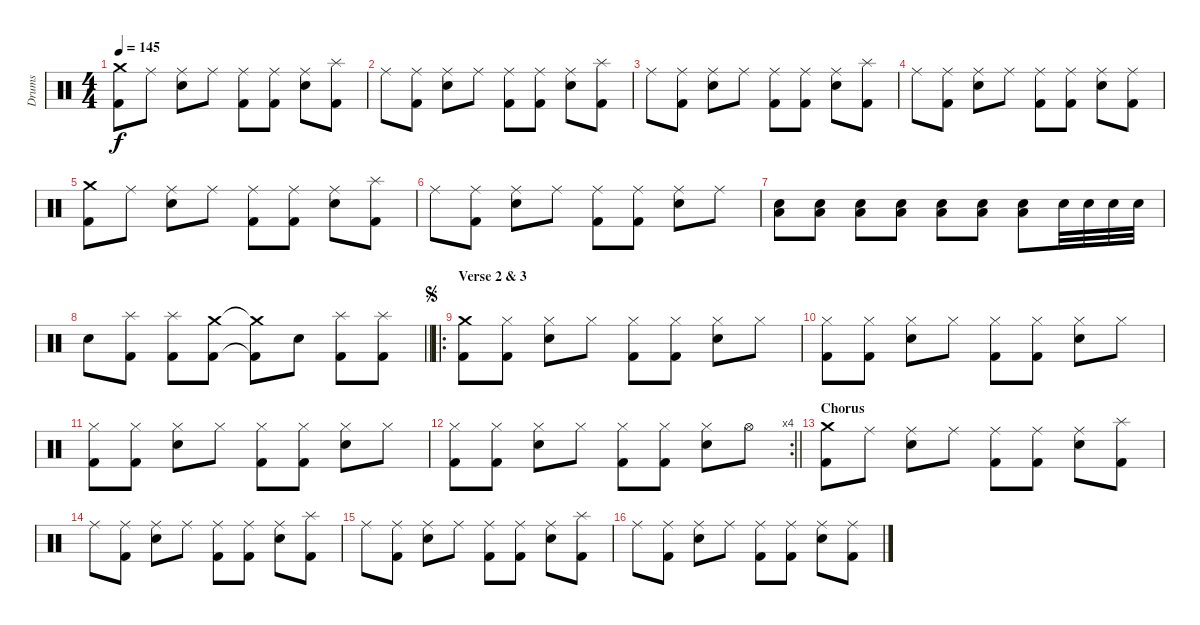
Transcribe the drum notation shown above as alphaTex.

\track ("Drums" "Drums") {instrument percussion}
\staff {score}
\articulation defaults
\ts (4 4)
\tempo 145
\clef neutral
\ks c
("Crash medium (hit)" "Kick (hit) 2").8{dy f} "Ride (middle)".8 ("Ride (middle)" "Snare (hit) 2").8 "Ride (middle)".8 ("Ride (middle)" "Kick (hit) 2").8 ("Ride (middle)" "Kick (hit) 2").8 ("Ride (middle)" "Snare (hit) 2").8 ("Splash (hit)" "Kick (hit) 2").8 |
"Ride (middle)".8 ("Ride (middle)" "Kick (hit) 2").8 ("Ride (middle)" "Snare (hit) 2").8 "Ride (middle)".8 ("Ride (middle)" "Kick (hit) 2").8 ("Ride (middle)" "Kick (hit) 2").8 ("Ride (middle)" "Snare (hit) 2").8 ("Splash (hit)" "Kick (hit) 2").8 |
"Ride (middle)".8 ("Ride (middle)" "Kick (hit) 2").8 ("Ride (middle)" "Snare (hit) 2").8 "Ride (middle)".8 ("Ride (middle)" "Kick (hit) 2").8 ("Ride (middle)" "Kick (hit) 2").8 ("Ride (middle)" "Snare (hit) 2").8 ("Splash (hit)" "Kick (hit) 2").8 |
"Ride (middle)".8 ("Ride (middle)" "Kick (hit) 2").8 ("Ride (middle)" "Snare (hit) 2").8 "Ride (middle)".8 ("Ride (middle)" "Kick (hit) 2").8 ("Ride (middle)" "Kick (hit) 2").8 ("Ride (middle)" "Snare (hit) 2").8 ("Ride (middle)" "Kick (hit) 2").8 |
("Crash medium (hit)" "Kick (hit) 2").8 "Ride (middle)".8 ("Ride (middle)" "Snare (hit) 2").8 "Ride (middle)".8 ("Ride (middle)" "Kick (hit) 2").8 ("Ride (middle)" "Kick (hit) 2").8 ("Ride (middle)" "Snare (hit) 2").8 ("Splash (hit)" "Kick (hit) 2").8 |
"Ride (middle)".8 ("Ride (middle)" "Kick (hit) 2").8 ("Ride (middle)" "Snare (hit) 2").8 "Ride (middle)".8 ("Ride (middle)" "Kick (hit) 2").8 ("Ride (middle)" "Kick (hit) 2").8 ("Ride (middle)" "Snare (hit) 2").8 "Ride (middle)".8 |
("Snare (hit) 2" "Low Floor Tom (hit)").8 ("Snare (hit) 2" "Low Floor Tom (hit)").8 ("Snare (hit) 2" "Low Floor Tom (hit)").8 ("Snare (hit) 2" "Low Floor Tom (hit)").8 ("Snare (hit) 2" "Low Floor Tom (hit)").8 ("Snare (hit) 2" "Low Floor Tom (hit)").8 ("Snare (hit) 2" "Low Floor Tom (hit)").8 "Snare (hit) 2".32 "Snare (hit) 2".32 "Snare (hit) 2".32 "Snare (hit) 2".32 |
\barLineRight lightlight "Snare (hit) 2".8
("Splash (hit)" "Kick (hit) 2").8 ("Splash (hit)" "Kick (hit) 2").8 ("Crash medium (hit)" "Kick (hit) 2").8 ("Crash medium (hit)"{t} "Kick (hit) 2"{t}).8 "Snare (hit) 2".8 ("Splash (hit)" "Kick (hit) 2").8 ("Splash (hit)" "Kick (hit) 2").8 |
\ro
\section ("" "Verse 2 & 3")
\jump segno
("Crash medium (hit)" "Kick (hit) 2").8 ("Hi-Hat (closed)" "Kick (hit) 2").8 ("Hi-Hat (closed)" "Snare (hit) 2").8 "Hi-Hat (closed)".8 ("Hi-Hat (closed)" "Kick (hit) 2").8 ("Hi-Hat (closed)" "Kick (hit) 2").8 ("Hi-Hat (closed)" "Snare (hit) 2").8 "Hi-Hat (closed)".8 |
("Hi-Hat (closed)" "Kick (hit) 2").8 ("Hi-Hat (closed)" "Kick (hit) 2").8 ("Hi-Hat (closed)" "Snare (hit) 2").8 "Hi-Hat (closed)".8 ("Hi-Hat (closed)" "Kick (hit) 2").8 ("Hi-Hat (closed)" "Kick (hit) 2").8 ("Hi-Hat (closed)" "Snare (hit) 2").8 "Hi-Hat (closed)".8 |
("Hi-Hat (closed)" "Kick (hit) 2").8 ("Hi-Hat (closed)" "Kick (hit) 2").8 ("Hi-Hat (closed)" "Snare (hit) 2").8 "Hi-Hat (closed)".8 ("Hi-Hat (closed)" "Kick (hit) 2").8 ("Hi-Hat (closed)" "Kick (hit) 2").8 ("Hi-Hat (closed)" "Snare (hit) 2").8 "Hi-Hat (closed)".8 |
\rc 4
\barLineRight lightlight
("Hi-Hat (closed)" "Kick (hit) 2").8 ("Hi-Hat (closed)" "Kick (hit) 2").8 ("Hi-Hat (closed)" "Snare (hit) 2").8 "Hi-Hat (closed)".8 ("Hi-Hat (closed)" "Kick (hit) 2").8 ("Hi-Hat (closed)" "Kick (hit) 2").8 ("Hi-Hat (closed)" "Snare (hit) 2").8 "Hi-Hat (open)".8 |
\section ("" "Chorus")
("Crash medium (hit)" "Kick (hit) 2").8 "Ride (middle)".8 ("Ride (middle)" "Snare (hit) 2").8 "Ride (middle)".8 ("Ride (middle)" "Kick (hit) 2").8 ("Ride (middle)" "Kick (hit) 2").8 ("Ride (middle)" "Snare (hit) 2").8 ("Splash (hit)" "Kick (hit) 2").8 |
"Ride (middle)".8 ("Ride (middle)" "Kick (hit) 2").8 ("Ride (middle)" "Snare (hit) 2").8 "Ride (middle)".8 ("Ride (middle)" "Kick (hit) 2").8 ("Ride (middle)" "Kick (hit) 2").8 ("Ride (middle)" "Snare (hit) 2").8 ("Splash (hit)" "Kick (hit) 2").8 |
"Ride (middle)".8 ("Ride (middle)" "Kick (hit) 2").8 ("Ride (middle)" "Snare (hit) 2").8 "Ride (middle)".8 ("Ride (middle)" "Kick (hit) 2").8 ("Ride (middle)" "Kick (hit) 2").8 ("Ride (middle)" "Snare (hit) 2").8 ("Splash (hit)" "Kick (hit) 2").8 |
"Ride (middle)".8 ("Ride (middle)" "Kick (hit) 2").8 ("Ride (middle)" "Snare (hit) 2").8 "Ride (middle)".8 ("Ride (middle)" "Kick (hit) 2").8 ("Ride (middle)" "Kick (hit) 2").8 ("Ride (middle)" "Snare (hit) 2").8 ("Ride (middle)" "Kick (hit) 2").8
